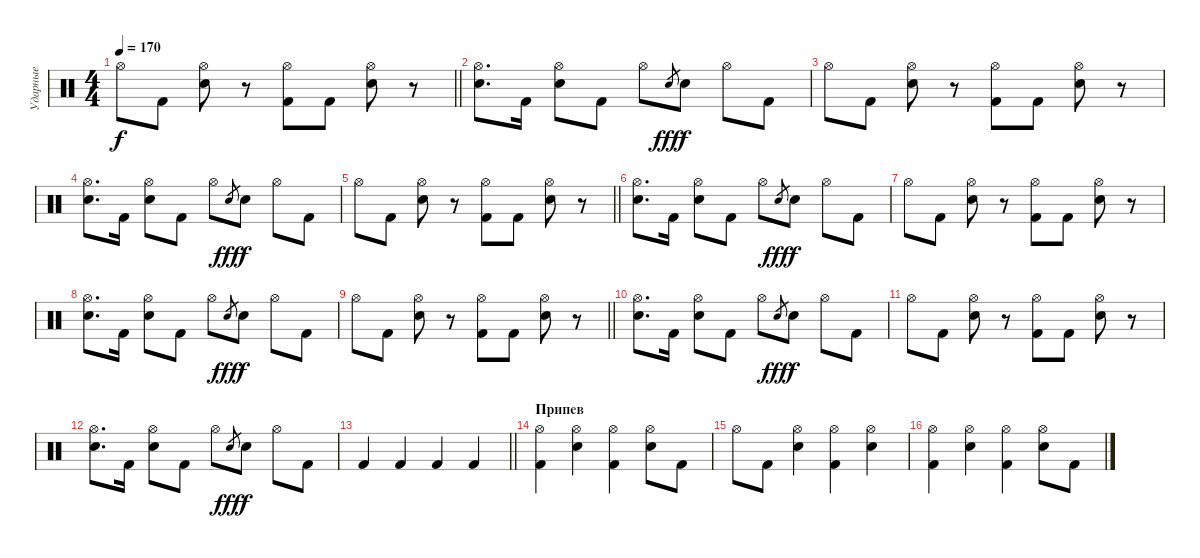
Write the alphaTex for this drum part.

\track ("Ударные" "Ударные") {instrument percussion}
\staff {score}
\articulation defaults
\ts (4 4)
\tempo 170
\clef neutral
\barLineRight lightlight
\ks c "Hi-Hat (open)".8{dy f} "Kick (hit) 2".8
("Electric Snare (hit)" "Hi-Hat (open)").8 r.8 ("Kick (hit) 2" "Hi-Hat (open)").8 "Kick (hit) 2".8 ("Electric Snare (hit)" "Hi-Hat (open)").8 r.8 |
("Electric Snare (hit)" "Hi-Hat (open)").8{d} "Kick (hit) 2".16 ("Electric Snare (hit)" "Hi-Hat (open)").8 "Kick (hit) 2".8 "Hi-Hat (open)".8 "Electric Snare (hit)"{x}.8{gr dy fff} "Electric Snare (hit)".8{dy f} "Hi-Hat (open)".8 "Kick (hit) 2".8 |
"Hi-Hat (open)".8 "Kick (hit) 2".8 ("Electric Snare (hit)" "Hi-Hat (open)").8 r.8 ("Kick (hit) 2" "Hi-Hat (open)").8 "Kick (hit) 2".8 ("Electric Snare (hit)" "Hi-Hat (open)").8 r.8 |
("Electric Snare (hit)" "Hi-Hat (open)").8{d} "Kick (hit) 2".16 ("Electric Snare (hit)" "Hi-Hat (open)").8 "Kick (hit) 2".8 "Hi-Hat (open)".8 "Electric Snare (hit)"{x}.8{gr dy fff} "Electric Snare (hit)".8{dy f} "Hi-Hat (open)".8 "Kick (hit) 2".8 |
\barLineRight lightlight "Hi-Hat (open)".8 "Kick (hit) 2".8
("Electric Snare (hit)" "Hi-Hat (open)").8 r.8 ("Kick (hit) 2" "Hi-Hat (open)").8 "Kick (hit) 2".8 ("Electric Snare (hit)" "Hi-Hat (open)").8 r.8 |
("Electric Snare (hit)" "Hi-Hat (open)").8{d} "Kick (hit) 2".16 ("Electric Snare (hit)" "Hi-Hat (open)").8 "Kick (hit) 2".8 "Hi-Hat (open)".8 "Electric Snare (hit)"{x}.8{gr dy fff} "Electric Snare (hit)".8{dy f} "Hi-Hat (open)".8 "Kick (hit) 2".8 |
"Hi-Hat (open)".8 "Kick (hit) 2".8 ("Electric Snare (hit)" "Hi-Hat (open)").8 r.8 ("Kick (hit) 2" "Hi-Hat (open)").8 "Kick (hit) 2".8 ("Electric Snare (hit)" "Hi-Hat (open)").8 r.8 |
("Electric Snare (hit)" "Hi-Hat (open)").8{d} "Kick (hit) 2".16 ("Electric Snare (hit)" "Hi-Hat (open)").8 "Kick (hit) 2".8 "Hi-Hat (open)".8 "Electric Snare (hit)"{x}.8{gr dy fff} "Electric Snare (hit)".8{dy f} "Hi-Hat (open)".8 "Kick (hit) 2".8 |
\barLineRight lightlight "Hi-Hat (open)".8 "Kick (hit) 2".8
("Electric Snare (hit)" "Hi-Hat (open)").8 r.8 ("Kick (hit) 2" "Hi-Hat (open)").8 "Kick (hit) 2".8 ("Electric Snare (hit)" "Hi-Hat (open)").8 r.8 |
("Electric Snare (hit)" "Hi-Hat (open)").8{d} "Kick (hit) 2".16 ("Electric Snare (hit)" "Hi-Hat (open)").8 "Kick (hit) 2".8 "Hi-Hat (open)".8 "Electric Snare (hit)"{x}.8{gr dy fff} "Electric Snare (hit)".8{dy f} "Hi-Hat (open)".8 "Kick (hit) 2".8 |
"Hi-Hat (open)".8 "Kick (hit) 2".8 ("Electric Snare (hit)" "Hi-Hat (open)").8 r.8 ("Kick (hit) 2" "Hi-Hat (open)").8 "Kick (hit) 2".8 ("Electric Snare (hit)" "Hi-Hat (open)").8 r.8 |
("Electric Snare (hit)" "Hi-Hat (open)").8{d} "Kick (hit) 2".16 ("Electric Snare (hit)" "Hi-Hat (open)").8 "Kick (hit) 2".8 "Hi-Hat (open)".8 "Electric Snare (hit)"{x}.8{gr dy fff} "Electric Snare (hit)".8{dy f} "Hi-Hat (open)".8 "Kick (hit) 2".8 |
\barLineRight lightlight "Kick (hit) 2".4 "Kick (hit) 2".4 "Kick (hit) 2".4 "Kick (hit) 2".4
|
\section ("" "Припев")
("Hi-Hat (open)" "Kick (hit) 2").4 ("Hi-Hat (open)" "Electric Snare (hit)").4 ("Hi-Hat (open)" "Kick (hit) 2").4 ("Hi-Hat (open)" "Electric Snare (hit)").8 "Kick (hit) 2".8 |
"Hi-Hat (open)".8 "Kick (hit) 2".8 ("Hi-Hat (open)" "Electric Snare (hit)").4 ("Hi-Hat (open)" "Kick (hit) 2").4 ("Hi-Hat (open)" "Electric Snare (hit)").4 |
("Hi-Hat (open)" "Kick (hit) 2").4 ("Hi-Hat (open)" "Electric Snare (hit)").4 ("Hi-Hat (open)" "Kick (hit) 2").4 ("Hi-Hat (open)" "Electric Snare (hit)").8 "Kick (hit) 2".8
